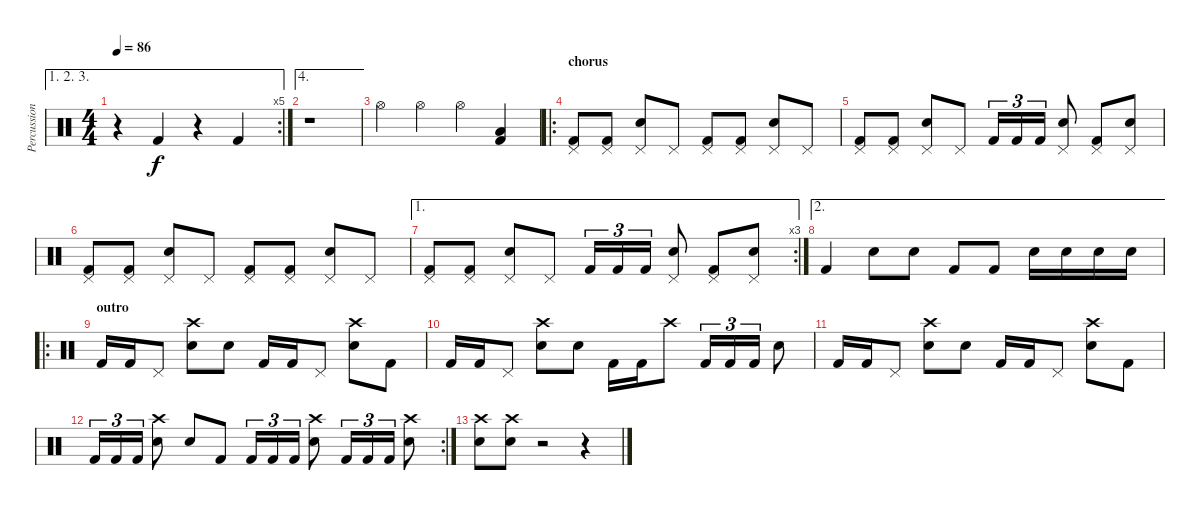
\track ("Percussion" "Percussion") {instrument percussion}
\staff {score}
\articulation defaults
\ae (1 2 3)
\rc 5
\ts (4 4)
\tempo 86
\clef neutral
\ks c
r.4{dy f} "Kick (hit) 2".4 r.4 "Kick (hit) 2".4 |
\ae 4
r.1 |
"Hi-Hat (open)".4 "Hi-Hat (open)".4 "Hi-Hat (open)".4 ("Low Tom (hit)" "Kick (hit) 2").4 |
\ro
\section ("" "chorus")
("Pedal Hi-Hat (hit)" "Kick (hit) 2").8 ("Pedal Hi-Hat (hit)" "Kick (hit) 2").8 ("Pedal Hi-Hat (hit)" "Electric Snare (hit)").8 "Pedal Hi-Hat (hit)".8 ("Pedal Hi-Hat (hit)" "Kick (hit) 2").8 ("Pedal Hi-Hat (hit)" "Kick (hit) 2").8 ("Pedal Hi-Hat (hit)" "Electric Snare (hit)").8 "Pedal Hi-Hat (hit)".8 |
("Pedal Hi-Hat (hit)" "Kick (hit) 2").8 ("Pedal Hi-Hat (hit)" "Kick (hit) 2").8 ("Pedal Hi-Hat (hit)" "Electric Snare (hit)").8 "Pedal Hi-Hat (hit)".8 "Kick (hit) 2".16{tu (3 2)} "Kick (hit) 2".16{tu (3 2)} "Kick (hit) 2".16{tu (3 2)} ("Pedal Hi-Hat (hit)" "Electric Snare (hit)").8 ("Pedal Hi-Hat (hit)" "Kick (hit) 2").8 ("Pedal Hi-Hat (hit)" "Electric Snare (hit)").8 |
("Pedal Hi-Hat (hit)" "Kick (hit) 2").8 ("Pedal Hi-Hat (hit)" "Kick (hit) 2").8 ("Pedal Hi-Hat (hit)" "Electric Snare (hit)").8 "Pedal Hi-Hat (hit)".8 ("Pedal Hi-Hat (hit)" "Kick (hit) 2").8 ("Pedal Hi-Hat (hit)" "Kick (hit) 2").8 ("Pedal Hi-Hat (hit)" "Electric Snare (hit)").8 "Pedal Hi-Hat (hit)".8 |
\ae 1
\rc 3
("Pedal Hi-Hat (hit)" "Kick (hit) 2").8 ("Pedal Hi-Hat (hit)" "Kick (hit) 2").8 ("Pedal Hi-Hat (hit)" "Electric Snare (hit)").8 "Pedal Hi-Hat (hit)".8 "Kick (hit) 2".16{tu (3 2)} "Kick (hit) 2".16{tu (3 2)} "Kick (hit) 2".16{tu (3 2)} ("Pedal Hi-Hat (hit)" "Electric Snare (hit)").8 ("Pedal Hi-Hat (hit)" "Kick (hit) 2").8 ("Pedal Hi-Hat (hit)" "Electric Snare (hit)").8 |
\ae 2 "Kick (hit) 2".4 "Electric Snare (hit)".8 "Electric Snare (hit)".8 "Kick (hit) 2".8 "Kick (hit) 2".8 "Electric Snare (hit)".16 "Electric Snare (hit)".16 "Electric Snare (hit)".16 "Electric Snare (hit)".16
|
\ro
\section ("" "outro")
"Kick (hit) 2".16 "Kick (hit) 2".16 "Pedal Hi-Hat (hit)".8 ("Crash high (hit)" "Electric Snare (hit)").8 "Electric Snare (hit)".8 "Kick (hit) 2".16 "Kick (hit) 2".16 "Pedal Hi-Hat (hit)".8 ("Crash high (hit)" "Electric Snare (hit)").8 "Kick (hit) 2".8 |
"Kick (hit) 2".16 "Kick (hit) 2".16 "Pedal Hi-Hat (hit)".8 ("Crash high (hit)" "Electric Snare (hit)").8 "Electric Snare (hit)".8 "Kick (hit) 2".16 "Kick (hit) 2".16 "Crash high (hit)".8 "Kick (hit) 2".16{tu (3 2)} "Kick (hit) 2".16{tu (3 2)} "Kick (hit) 2".16{tu (3 2)} "Electric Snare (hit)".8 |
"Kick (hit) 2".16 "Kick (hit) 2".16 "Pedal Hi-Hat (hit)".8 ("Crash high (hit)" "Electric Snare (hit)").8 "Electric Snare (hit)".8 "Kick (hit) 2".16 "Kick (hit) 2".16 "Pedal Hi-Hat (hit)".8 ("Crash high (hit)" "Electric Snare (hit)").8 "Kick (hit) 2".8 |
\rc 2 "Kick (hit) 2".16{tu (3 2)} "Kick (hit) 2".16{tu (3 2)} "Kick (hit) 2".16{tu (3 2)}
("Crash high (hit)" "Electric Snare (hit)").8 "Electric Snare (hit)".8 "Kick (hit) 2".8 "Kick (hit) 2".16{tu (3 2)} "Kick (hit) 2".16{tu (3 2)} "Kick (hit) 2".16{tu (3 2)} ("Crash high (hit)" "Electric Snare (hit)").8 "Kick (hit) 2".16{tu (3 2)} "Kick (hit) 2".16{tu (3 2)} "Kick (hit) 2".16{tu (3 2)} ("Crash high (hit)" "Electric Snare (hit)").8 |
("Crash high (hit)" "Electric Snare (hit)").8 ("Crash high (hit)" "Electric Snare (hit)").8 r.2 r.4
